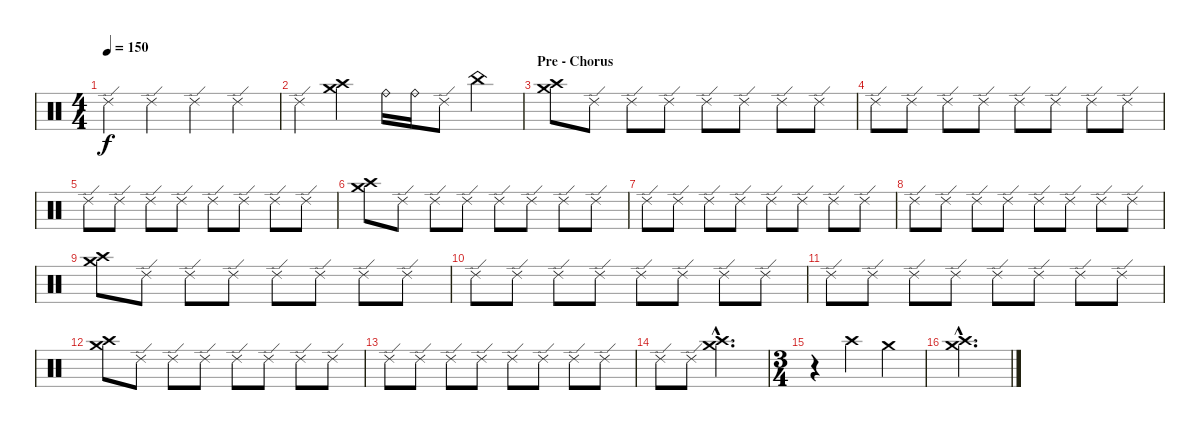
\track "" {instrument percussion}
\staff {score}
\articulation defaults
\ts (4 4)
\tempo 150
\clef neutral
\ks c "Ride (edge) 2".4{dy f} "Ride (edge) 2".4 "Ride (edge) 2".4 "Ride (edge) 2".4
|
"Ride (edge) 2".4 ("Crash medium (hit)" "Crash high (hit)").4 "Ride (bell)".16 "Ride (bell)".16 "Ride (edge) 2".8 "China (hit)".4 |
\section ("" "Pre - Chorus")
("Crash medium (hit)" "Crash high (hit)").8 "Ride (edge) 2".8 "Ride (edge) 2".8 "Ride (edge) 2".8 "Ride (edge) 2".8 "Ride (edge) 2".8 "Ride (edge) 2".8 "Ride (edge) 2".8 |
"Ride (edge) 2".8 "Ride (edge) 2".8 "Ride (edge) 2".8 "Ride (edge) 2".8 "Ride (edge) 2".8 "Ride (edge) 2".8 "Ride (edge) 2".8 "Ride (edge) 2".8 |
"Ride (edge) 2".8 "Ride (edge) 2".8 "Ride (edge) 2".8 "Ride (edge) 2".8 "Ride (edge) 2".8 "Ride (edge) 2".8 "Ride (edge) 2".8 "Ride (edge) 2".8 |
("Crash medium (hit)" "Crash high (hit)").8 "Ride (edge) 2".8 "Ride (edge) 2".8 "Ride (edge) 2".8 "Ride (edge) 2".8 "Ride (edge) 2".8 "Ride (edge) 2".8 "Ride (edge) 2".8 |
"Ride (edge) 2".8 "Ride (edge) 2".8 "Ride (edge) 2".8 "Ride (edge) 2".8 "Ride (edge) 2".8 "Ride (edge) 2".8 "Ride (edge) 2".8 "Ride (edge) 2".8 |
"Ride (edge) 2".8 "Ride (edge) 2".8 "Ride (edge) 2".8 "Ride (edge) 2".8 "Ride (edge) 2".8 "Ride (edge) 2".8 "Ride (edge) 2".8 "Ride (edge) 2".8 |
("Crash medium (hit)" "Crash high (hit)").8 "Ride (edge) 2".8 "Ride (edge) 2".8 "Ride (edge) 2".8 "Ride (edge) 2".8 "Ride (edge) 2".8 "Ride (edge) 2".8 "Ride (edge) 2".8 |
"Ride (edge) 2".8 "Ride (edge) 2".8 "Ride (edge) 2".8 "Ride (edge) 2".8 "Ride (edge) 2".8 "Ride (edge) 2".8 "Ride (edge) 2".8 "Ride (edge) 2".8 |
"Ride (edge) 2".8 "Ride (edge) 2".8 "Ride (edge) 2".8 "Ride (edge) 2".8 "Ride (edge) 2".8 "Ride (edge) 2".8 "Ride (edge) 2".8 "Ride (edge) 2".8 |
("Crash medium (hit)" "Crash high (hit)").8 "Ride (edge) 2".8 "Ride (edge) 2".8 "Ride (edge) 2".8 "Ride (edge) 2".8 "Ride (edge) 2".8 "Ride (edge) 2".8 "Ride (edge) 2".8 |
"Ride (edge) 2".8 "Ride (edge) 2".8 "Ride (edge) 2".8 "Ride (edge) 2".8 "Ride (edge) 2".8 "Ride (edge) 2".8 "Ride (edge) 2".8 "Ride (edge) 2".8 |
"Ride (edge) 2".8 "Ride (edge) 2".8 ("Crash medium (hit)"{hac} "Crash high (hit)"{hac}).2{d} |
\ts (3 4)
r.4 "Crash high (hit)".4 "Crash medium (hit)".4 |
("Crash medium (hit)"{hac} "Crash high (hit)"{hac}).2{d}
